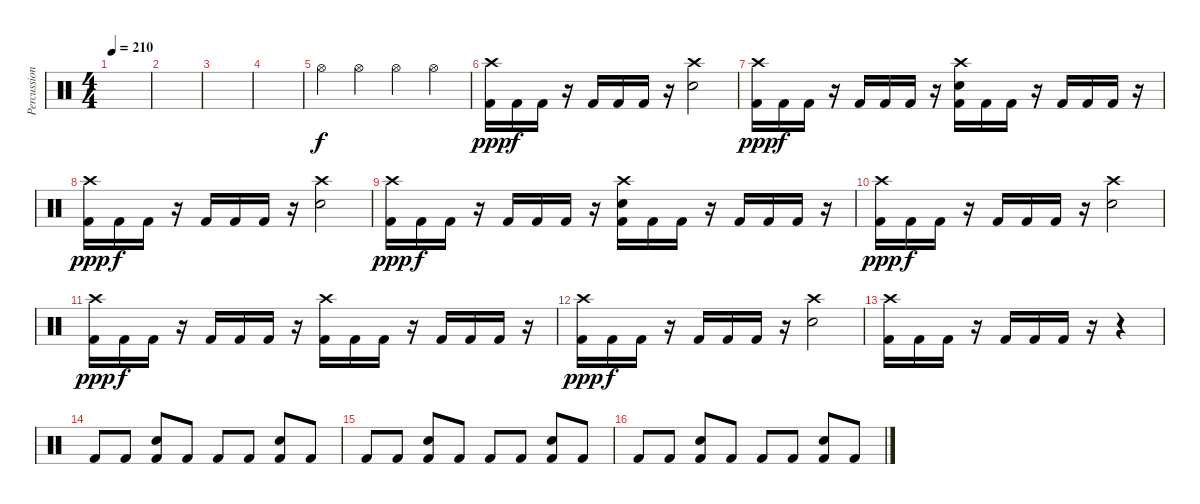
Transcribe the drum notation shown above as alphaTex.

\track ("Percussion" "Percussion") {instrument percussion}
\staff {score}
\articulation defaults
\ts (4 4)
\tempo 210
\clef neutral
\ks c
|
|
|
|
"Hi-Hat (open)".4 "Hi-Hat (open)".4 "Hi-Hat (open)".4 "Hi-Hat (open)".4 |
("Crash high (hit)" "Kick (hit) 2").16{dy ppp} "Kick (hit) 2".16{dy f} "Kick (hit) 2".16 r.16 "Kick (hit) 2".16 "Kick (hit) 2".16 "Kick (hit) 2".16 r.16 ("Crash high (hit)" "Electric Snare (hit)").2 |
("Crash high (hit)" "Kick (hit) 2").16{dy ppp} "Kick (hit) 2".16{dy f} "Kick (hit) 2".16 r.16 "Kick (hit) 2".16 "Kick (hit) 2".16 "Kick (hit) 2".16 r.16 ("Crash high (hit)" "Kick (hit) 2" "Electric Snare (hit)").16 "Kick (hit) 2".16 "Kick (hit) 2".16 r.16 "Kick (hit) 2".16 "Kick (hit) 2".16 "Kick (hit) 2".16 r.16 |
("Crash high (hit)" "Kick (hit) 2").16{dy ppp} "Kick (hit) 2".16{dy f} "Kick (hit) 2".16 r.16 "Kick (hit) 2".16 "Kick (hit) 2".16 "Kick (hit) 2".16 r.16 ("Crash high (hit)" "Electric Snare (hit)").2 |
("Crash high (hit)" "Kick (hit) 2").16{dy ppp} "Kick (hit) 2".16{dy f} "Kick (hit) 2".16 r.16 "Kick (hit) 2".16 "Kick (hit) 2".16 "Kick (hit) 2".16 r.16 ("Crash high (hit)" "Kick (hit) 2" "Electric Snare (hit)").16 "Kick (hit) 2".16 "Kick (hit) 2".16 r.16 "Kick (hit) 2".16 "Kick (hit) 2".16 "Kick (hit) 2".16 r.16 |
("Crash high (hit)" "Kick (hit) 2").16{dy ppp} "Kick (hit) 2".16{dy f} "Kick (hit) 2".16 r.16 "Kick (hit) 2".16 "Kick (hit) 2".16 "Kick (hit) 2".16 r.16 ("Crash high (hit)" "Electric Snare (hit)").2 |
("Crash high (hit)" "Kick (hit) 2").16{dy ppp} "Kick (hit) 2".16{dy f} "Kick (hit) 2".16 r.16 "Kick (hit) 2".16 "Kick (hit) 2".16 "Kick (hit) 2".16 r.16 ("Crash high (hit)" "Kick (hit) 2").16 "Kick (hit) 2".16 "Kick (hit) 2".16 r.16 "Kick (hit) 2".16 "Kick (hit) 2".16 "Kick (hit) 2".16 r.16 |
("Crash high (hit)" "Kick (hit) 2").16{dy ppp} "Kick (hit) 2".16{dy f} "Kick (hit) 2".16 r.16 "Kick (hit) 2".16 "Kick (hit) 2".16 "Kick (hit) 2".16 r.16 ("Crash high (hit)" "Electric Snare (hit)").2 |
("Crash high (hit)" "Kick (hit) 2").16 "Kick (hit) 2".16 "Kick (hit) 2".16 r.16 "Kick (hit) 2".16 "Kick (hit) 2".16 "Kick (hit) 2".16 r.16 r.4 |
"Kick (hit) 2".8 "Kick (hit) 2".8 ("Electric Snare (hit)" "Kick (hit) 2").8 "Kick (hit) 2".8 "Kick (hit) 2".8 "Kick (hit) 2".8 ("Electric Snare (hit)" "Kick (hit) 2").8 "Kick (hit) 2".8 |
"Kick (hit) 2".8 "Kick (hit) 2".8 ("Electric Snare (hit)" "Kick (hit) 2").8 "Kick (hit) 2".8 "Kick (hit) 2".8 "Kick (hit) 2".8 ("Electric Snare (hit)" "Kick (hit) 2").8 "Kick (hit) 2".8 |
"Kick (hit) 2".8 "Kick (hit) 2".8 ("Electric Snare (hit)" "Kick (hit) 2").8 "Kick (hit) 2".8 "Kick (hit) 2".8 "Kick (hit) 2".8 ("Electric Snare (hit)" "Kick (hit) 2").8 "Kick (hit) 2".8
